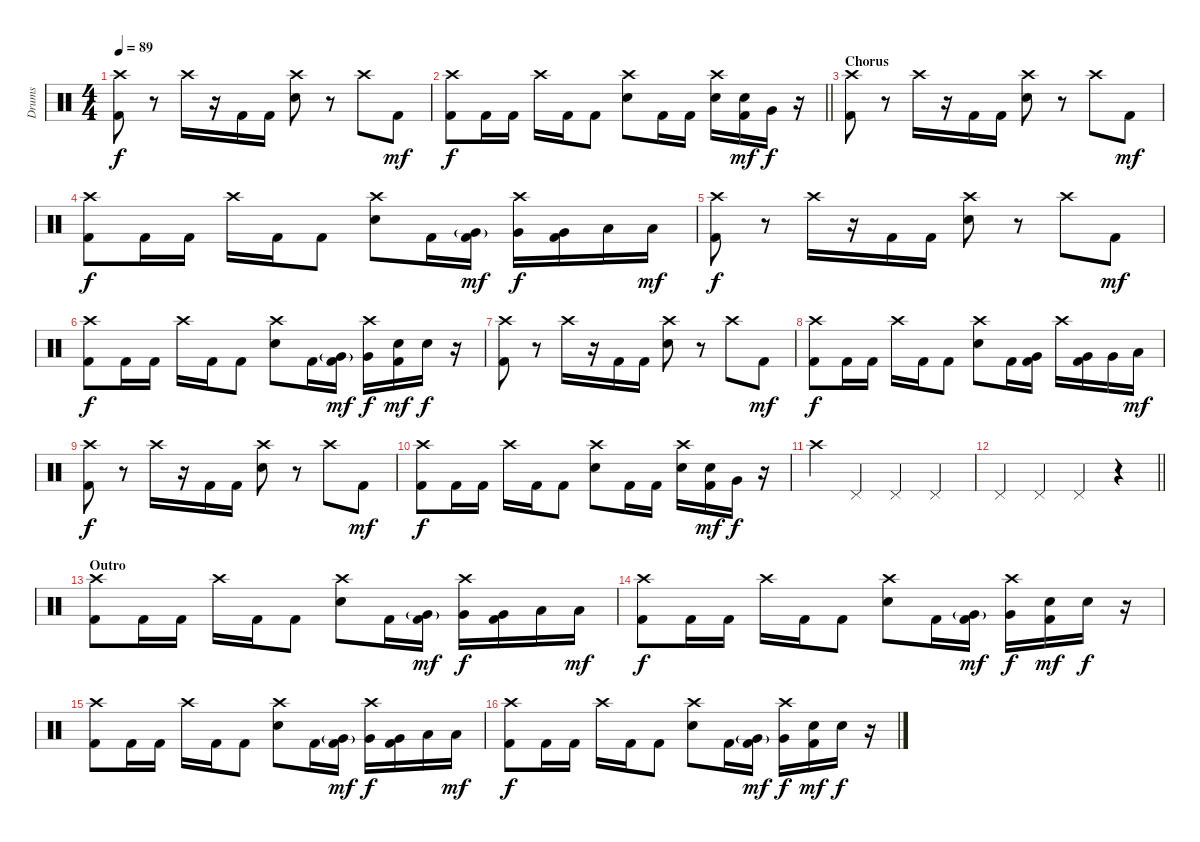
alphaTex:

\track ("Drums" "Drums") {instrument percussion}
\staff {score}
\articulation defaults
\ts (4 4)
\tempo 89
\clef neutral
\ks c
("Crash high (hit)" "Kick (hit) 2").8{dy f} r.8 "Crash high (hit)".16 r.16 "Kick (hit) 2".16 "Kick (hit) 2".16 ("Crash high (hit)" "Electric Snare (hit)").8 r.8 "Crash high (hit)".8 "Kick (hit) 2".8{dy mf} |
\barLineRight lightlight
("Crash high (hit)" "Kick (hit) 2").8{dy f} "Kick (hit) 2".16 "Kick (hit) 2".16 "Crash high (hit)".16 "Kick (hit) 2".16 "Kick (hit) 2".8 ("Crash high (hit)" "Electric Snare (hit)").8 "Kick (hit) 2".16 "Kick (hit) 2".16 ("Crash high (hit)" "Electric Snare (hit)").16 ("Electric Snare (hit)" "Kick (hit) 2").16{dy mf} "Very Low Tom (hit)".16{dy f} r.16 |
\section ("" "Chorus")
("Crash high (hit)" "Kick (hit) 2").8 r.8 "Crash high (hit)".16 r.16 "Kick (hit) 2".16 "Kick (hit) 2".16 ("Crash high (hit)" "Electric Snare (hit)").8 r.8 "Crash high (hit)".8 "Kick (hit) 2".8{dy mf} |
("Crash high (hit)" "Kick (hit) 2").8{dy f} "Kick (hit) 2".16 "Kick (hit) 2".16 "Crash high (hit)".16 "Kick (hit) 2".16 "Kick (hit) 2".8 ("Crash high (hit)" "Electric Snare (hit)").8 "Kick (hit) 2".16 ("Very Low Tom (hit)"{g} "Kick (hit) 2").16{dy mf} ("Crash high (hit)" "Very Low Tom (hit)").16{dy f} ("Very Low Tom (hit)" "Kick (hit) 2").16 "Low Floor Tom (hit)".16 "Low Floor Tom (hit)".16{dy mf} |
("Crash high (hit)" "Kick (hit) 2").8{dy f} r.8 "Crash high (hit)".16 r.16 "Kick (hit) 2".16 "Kick (hit) 2".16 ("Crash high (hit)" "Electric Snare (hit)").8 r.8 "Crash high (hit)".8 "Kick (hit) 2".8{dy mf} |
("Crash high (hit)" "Kick (hit) 2").8{dy f} "Kick (hit) 2".16 "Kick (hit) 2".16 "Crash high (hit)".16 "Kick (hit) 2".16 "Kick (hit) 2".8 ("Crash high (hit)" "Electric Snare (hit)").8 "Kick (hit) 2".16 ("Very Low Tom (hit)"{g} "Kick (hit) 2").16{dy mf} ("Crash high (hit)" "Very Low Tom (hit)").16{dy f} ("Electric Snare (hit)" "Kick (hit) 2").16{dy mf} "Electric Snare (hit)".16{dy f} r.16 |
("Crash high (hit)" "Kick (hit) 2").8 r.8 "Crash high (hit)".16 r.16 "Kick (hit) 2".16 "Kick (hit) 2".16 ("Crash high (hit)" "Electric Snare (hit)").8 r.8 "Crash high (hit)".8 "Kick (hit) 2".8{dy mf} |
("Crash high (hit)" "Kick (hit) 2").8{dy f} "Kick (hit) 2".16 "Kick (hit) 2".16 "Crash high (hit)".16 "Kick (hit) 2".16 "Kick (hit) 2".8 ("Crash high (hit)" "Electric Snare (hit)").8 "Kick (hit) 2".16 ("Very Low Tom (hit)" "Kick (hit) 2").16 "Crash high (hit)".16 ("Very Low Tom (hit)" "Kick (hit) 2").16 "Very Low Tom (hit)".16 "Low Floor Tom (hit)".16{dy mf} |
("Crash high (hit)" "Kick (hit) 2").8{dy f} r.8 "Crash high (hit)".16 r.16 "Kick (hit) 2".16 "Kick (hit) 2".16 ("Crash high (hit)" "Electric Snare (hit)").8 r.8 "Crash high (hit)".8 "Kick (hit) 2".8{dy mf} |
("Crash high (hit)" "Kick (hit) 2").8{dy f} "Kick (hit) 2".16 "Kick (hit) 2".16 "Crash high (hit)".16 "Kick (hit) 2".16 "Kick (hit) 2".8 ("Crash high (hit)" "Electric Snare (hit)").8 "Kick (hit) 2".16 "Kick (hit) 2".16 ("Crash high (hit)" "Electric Snare (hit)").16 ("Electric Snare (hit)" "Kick (hit) 2").16{dy mf} "Very Low Tom (hit)".16{dy f} r.16 |
"Crash high (hit)".4 "Pedal Hi-Hat (hit)".4 "Pedal Hi-Hat (hit)".4 "Pedal Hi-Hat (hit)".4 |
\barLineRight lightlight "Pedal Hi-Hat (hit)".4 "Pedal Hi-Hat (hit)".4 "Pedal Hi-Hat (hit)".4
r.4 |
\section ("" "Outro")
("Crash high (hit)" "Kick (hit) 2").8 "Kick (hit) 2".16 "Kick (hit) 2".16 "Crash high (hit)".16 "Kick (hit) 2".16 "Kick (hit) 2".8 ("Crash high (hit)" "Electric Snare (hit)").8 "Kick (hit) 2".16 ("Very Low Tom (hit)"{g} "Kick (hit) 2").16{dy mf} ("Crash high (hit)" "Very Low Tom (hit)").16{dy f} ("Very Low Tom (hit)" "Kick (hit) 2").16 "Low Floor Tom (hit)".16 "Low Floor Tom (hit)".16{dy mf} |
("Crash high (hit)" "Kick (hit) 2").8{dy f} "Kick (hit) 2".16 "Kick (hit) 2".16 "Crash high (hit)".16 "Kick (hit) 2".16 "Kick (hit) 2".8 ("Crash high (hit)" "Electric Snare (hit)").8 "Kick (hit) 2".16 ("Very Low Tom (hit)"{g} "Kick (hit) 2").16{dy mf} ("Crash high (hit)" "Very Low Tom (hit)").16{dy f} ("Electric Snare (hit)" "Kick (hit) 2").16{dy mf} "Electric Snare (hit)".16{dy f} r.16 |
("Crash high (hit)" "Kick (hit) 2").8 "Kick (hit) 2".16 "Kick (hit) 2".16 "Crash high (hit)".16 "Kick (hit) 2".16 "Kick (hit) 2".8 ("Crash high (hit)" "Electric Snare (hit)").8 "Kick (hit) 2".16 ("Very Low Tom (hit)"{g} "Kick (hit) 2").16{dy mf} ("Crash high (hit)" "Very Low Tom (hit)").16{dy f} ("Very Low Tom (hit)" "Kick (hit) 2").16 "Low Floor Tom (hit)".16 "Low Floor Tom (hit)".16{dy mf} |
("Crash high (hit)" "Kick (hit) 2").8{dy f} "Kick (hit) 2".16 "Kick (hit) 2".16 "Crash high (hit)".16 "Kick (hit) 2".16 "Kick (hit) 2".8 ("Crash high (hit)" "Electric Snare (hit)").8 "Kick (hit) 2".16 ("Very Low Tom (hit)"{g} "Kick (hit) 2").16{dy mf} ("Crash high (hit)" "Very Low Tom (hit)").16{dy f} ("Electric Snare (hit)" "Kick (hit) 2").16{dy mf} "Electric Snare (hit)".16{dy f} r.16
